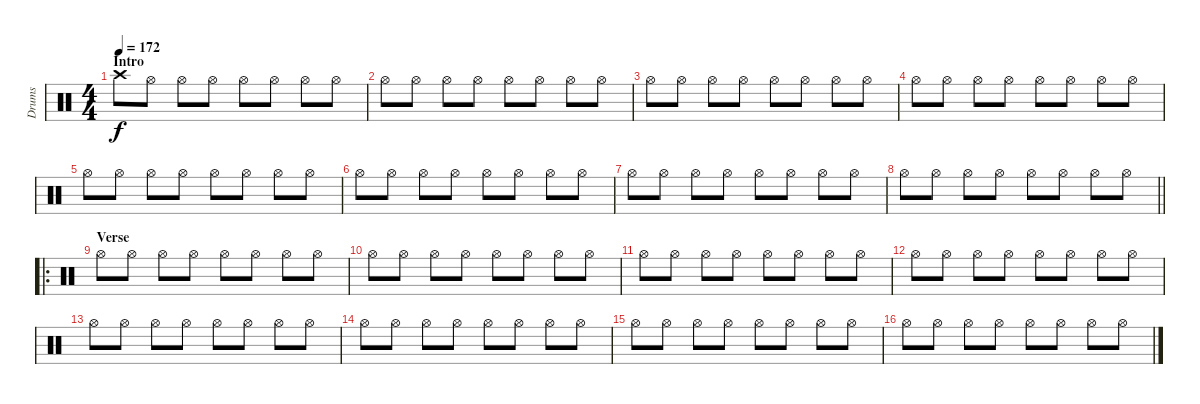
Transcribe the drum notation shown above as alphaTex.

\track ("Drums" "Drums") {instrument percussion}
\staff {score}
\articulation defaults
\ts (4 4)
\section ("" "Intro")
\tempo 172
\clef neutral
\ks c "Crash high (hit)".8{dy f} "Hi-Hat (open)".8 "Hi-Hat (open)".8 "Hi-Hat (open)".8 "Hi-Hat (open)".8 "Hi-Hat (open)".8 "Hi-Hat (open)".8 "Hi-Hat (open)".8
|
"Hi-Hat (open)".8 "Hi-Hat (open)".8 "Hi-Hat (open)".8 "Hi-Hat (open)".8 "Hi-Hat (open)".8 "Hi-Hat (open)".8 "Hi-Hat (open)".8 "Hi-Hat (open)".8 |
"Hi-Hat (open)".8 "Hi-Hat (open)".8 "Hi-Hat (open)".8 "Hi-Hat (open)".8 "Hi-Hat (open)".8 "Hi-Hat (open)".8 "Hi-Hat (open)".8 "Hi-Hat (open)".8 |
"Hi-Hat (open)".8 "Hi-Hat (open)".8 "Hi-Hat (open)".8 "Hi-Hat (open)".8 "Hi-Hat (open)".8 "Hi-Hat (open)".8 "Hi-Hat (open)".8 "Hi-Hat (open)".8 |
"Hi-Hat (open)".8 "Hi-Hat (open)".8 "Hi-Hat (open)".8 "Hi-Hat (open)".8 "Hi-Hat (open)".8 "Hi-Hat (open)".8 "Hi-Hat (open)".8 "Hi-Hat (open)".8 |
"Hi-Hat (open)".8 "Hi-Hat (open)".8 "Hi-Hat (open)".8 "Hi-Hat (open)".8 "Hi-Hat (open)".8 "Hi-Hat (open)".8 "Hi-Hat (open)".8 "Hi-Hat (open)".8 |
"Hi-Hat (open)".8 "Hi-Hat (open)".8 "Hi-Hat (open)".8 "Hi-Hat (open)".8 "Hi-Hat (open)".8 "Hi-Hat (open)".8 "Hi-Hat (open)".8 "Hi-Hat (open)".8 |
\barLineRight lightlight "Hi-Hat (open)".8 "Hi-Hat (open)".8 "Hi-Hat (open)".8 "Hi-Hat (open)".8 "Hi-Hat (open)".8 "Hi-Hat (open)".8 "Hi-Hat (open)".8 "Hi-Hat (open)".8
|
\ro
\section ("" "Verse")
"Hi-Hat (open)".8 "Hi-Hat (open)".8 "Hi-Hat (open)".8 "Hi-Hat (open)".8 "Hi-Hat (open)".8 "Hi-Hat (open)".8 "Hi-Hat (open)".8 "Hi-Hat (open)".8 |
"Hi-Hat (open)".8 "Hi-Hat (open)".8 "Hi-Hat (open)".8 "Hi-Hat (open)".8 "Hi-Hat (open)".8 "Hi-Hat (open)".8 "Hi-Hat (open)".8 "Hi-Hat (open)".8 |
"Hi-Hat (open)".8 "Hi-Hat (open)".8 "Hi-Hat (open)".8 "Hi-Hat (open)".8 "Hi-Hat (open)".8 "Hi-Hat (open)".8 "Hi-Hat (open)".8 "Hi-Hat (open)".8 |
"Hi-Hat (open)".8 "Hi-Hat (open)".8 "Hi-Hat (open)".8 "Hi-Hat (open)".8 "Hi-Hat (open)".8 "Hi-Hat (open)".8 "Hi-Hat (open)".8 "Hi-Hat (open)".8 |
"Hi-Hat (open)".8 "Hi-Hat (open)".8 "Hi-Hat (open)".8 "Hi-Hat (open)".8 "Hi-Hat (open)".8 "Hi-Hat (open)".8 "Hi-Hat (open)".8 "Hi-Hat (open)".8 |
"Hi-Hat (open)".8 "Hi-Hat (open)".8 "Hi-Hat (open)".8 "Hi-Hat (open)".8 "Hi-Hat (open)".8 "Hi-Hat (open)".8 "Hi-Hat (open)".8 "Hi-Hat (open)".8 |
"Hi-Hat (open)".8 "Hi-Hat (open)".8 "Hi-Hat (open)".8 "Hi-Hat (open)".8 "Hi-Hat (open)".8 "Hi-Hat (open)".8 "Hi-Hat (open)".8 "Hi-Hat (open)".8 |
"Hi-Hat (open)".8 "Hi-Hat (open)".8 "Hi-Hat (open)".8 "Hi-Hat (open)".8 "Hi-Hat (open)".8 "Hi-Hat (open)".8 "Hi-Hat (open)".8 "Hi-Hat (open)".8
